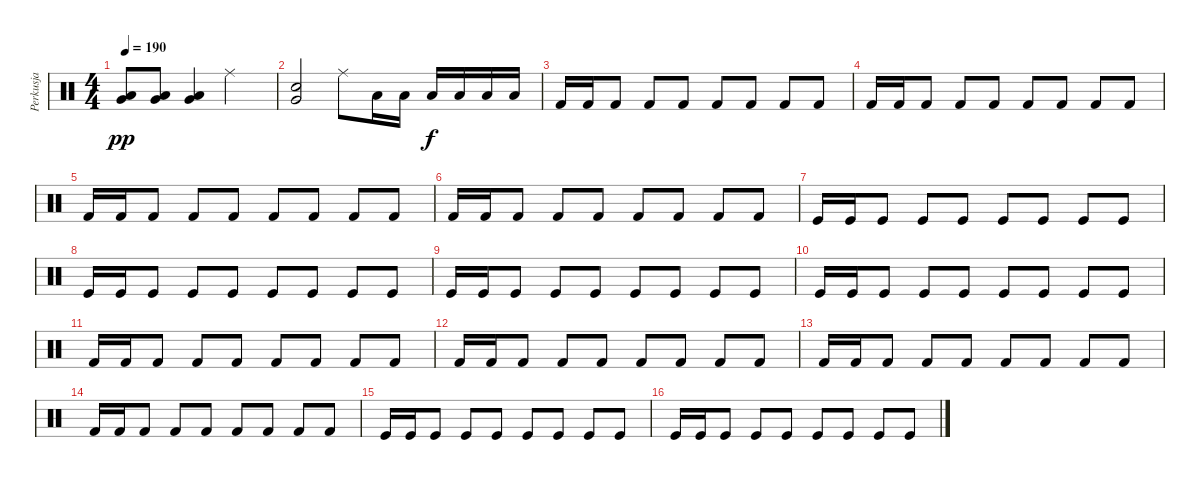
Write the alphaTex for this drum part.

\track ("Perkusja" "Perkusja") {instrument percussion}
\staff {score}
\articulation defaults
\ts (4 4)
\tempo 190
\clef neutral
\ks c
("Very Low Tom (hit)" "Low Floor Tom (hit)").8{dy pp} ("Very Low Tom (hit)" "Low Floor Tom (hit)").8 ("Very Low Tom (hit)" "Low Floor Tom (hit)").4 "Ride (middle)".2 |
("Snare (hit) 2" "Very Low Tom (hit)").2 "Ride (middle)".8 "Low Floor Tom (hit)".16 "Low Floor Tom (hit)".16 "Low Floor Tom (hit)".16{dy f} "Low Floor Tom (hit)".16 "Low Floor Tom (hit)".16 "Low Floor Tom (hit)".16 |
"Kick (hit) 2".16{volume 0} "Kick (hit) 2".16 "Kick (hit) 2".8 "Kick (hit) 2".8 "Kick (hit) 2".8 "Kick (hit) 2".8 "Kick (hit) 2".8 "Kick (hit) 2".8 "Kick (hit) 2".8 |
"Kick (hit) 2".16 "Kick (hit) 2".16 "Kick (hit) 2".8 "Kick (hit) 2".8 "Kick (hit) 2".8 "Kick (hit) 2".8 "Kick (hit) 2".8 "Kick (hit) 2".8 "Kick (hit) 2".8 |
"Kick (hit) 2".16 "Kick (hit) 2".16 "Kick (hit) 2".8 "Kick (hit) 2".8 "Kick (hit) 2".8 "Kick (hit) 2".8 "Kick (hit) 2".8 "Kick (hit) 2".8 "Kick (hit) 2".8 |
"Kick (hit) 2".16 "Kick (hit) 2".16 "Kick (hit) 2".8 "Kick (hit) 2".8 "Kick (hit) 2".8 "Kick (hit) 2".8 "Kick (hit) 2".8 "Kick (hit) 2".8 "Kick (hit) 2".8 |
"Kick (hit)".16 "Kick (hit)".16 "Kick (hit)".8 "Kick (hit)".8 "Kick (hit)".8 "Kick (hit)".8 "Kick (hit)".8 "Kick (hit)".8 "Kick (hit)".8 |
"Kick (hit)".16 "Kick (hit)".16 "Kick (hit)".8 "Kick (hit)".8 "Kick (hit)".8 "Kick (hit)".8 "Kick (hit)".8 "Kick (hit)".8 "Kick (hit)".8 |
"Kick (hit)".16 "Kick (hit)".16 "Kick (hit)".8 "Kick (hit)".8 "Kick (hit)".8 "Kick (hit)".8 "Kick (hit)".8 "Kick (hit)".8 "Kick (hit)".8 |
"Kick (hit)".16 "Kick (hit)".16 "Kick (hit)".8 "Kick (hit)".8 "Kick (hit)".8 "Kick (hit)".8 "Kick (hit)".8 "Kick (hit)".8 "Kick (hit)".8 |
"Kick (hit) 2".16 "Kick (hit) 2".16 "Kick (hit) 2".8 "Kick (hit) 2".8 "Kick (hit) 2".8 "Kick (hit) 2".8 "Kick (hit) 2".8 "Kick (hit) 2".8 "Kick (hit) 2".8 |
"Kick (hit) 2".16 "Kick (hit) 2".16 "Kick (hit) 2".8 "Kick (hit) 2".8 "Kick (hit) 2".8 "Kick (hit) 2".8 "Kick (hit) 2".8 "Kick (hit) 2".8 "Kick (hit) 2".8 |
"Kick (hit) 2".16 "Kick (hit) 2".16 "Kick (hit) 2".8 "Kick (hit) 2".8 "Kick (hit) 2".8 "Kick (hit) 2".8 "Kick (hit) 2".8 "Kick (hit) 2".8 "Kick (hit) 2".8 |
"Kick (hit) 2".16 "Kick (hit) 2".16 "Kick (hit) 2".8 "Kick (hit) 2".8 "Kick (hit) 2".8 "Kick (hit) 2".8 "Kick (hit) 2".8 "Kick (hit) 2".8 "Kick (hit) 2".8 |
"Kick (hit)".16 "Kick (hit)".16 "Kick (hit)".8 "Kick (hit)".8 "Kick (hit)".8 "Kick (hit)".8 "Kick (hit)".8 "Kick (hit)".8 "Kick (hit)".8 |
"Kick (hit)".16 "Kick (hit)".16 "Kick (hit)".8 "Kick (hit)".8 "Kick (hit)".8 "Kick (hit)".8 "Kick (hit)".8 "Kick (hit)".8 "Kick (hit)".8
